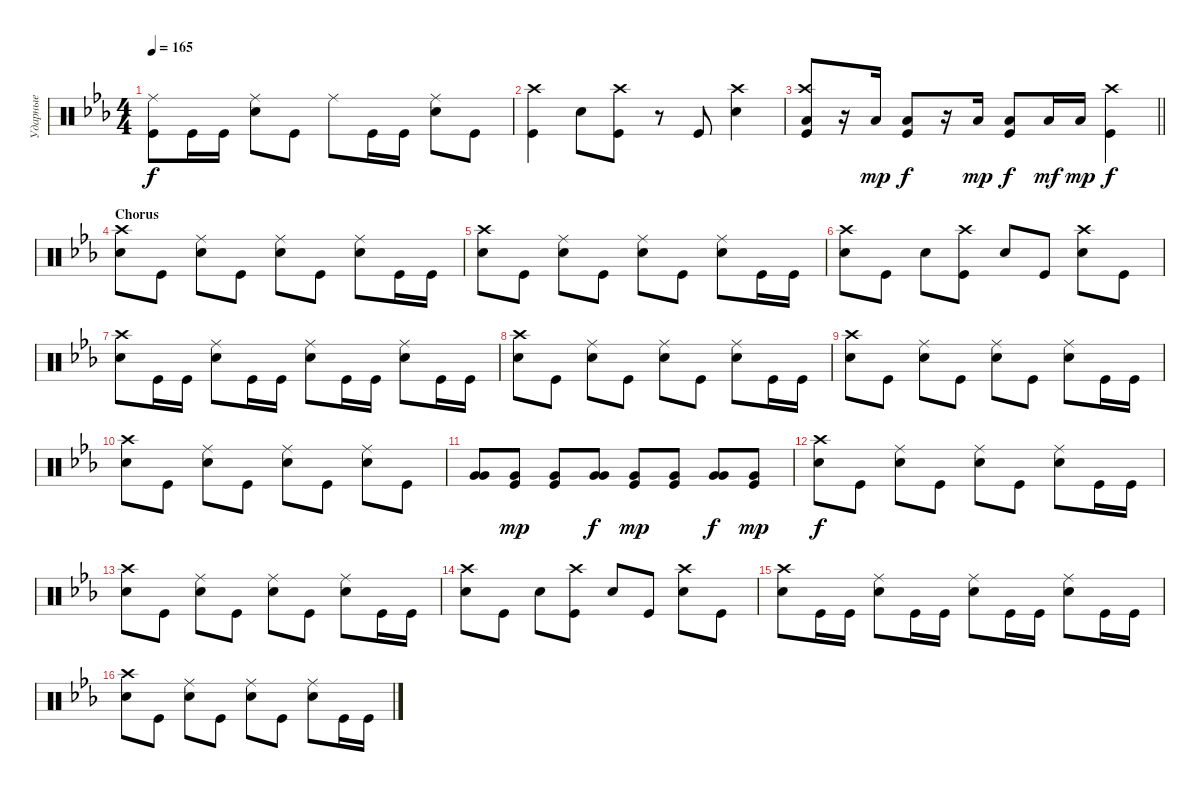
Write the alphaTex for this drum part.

\track ("Ударные" "Ударные") {instrument percussion}
\staff {score}
\articulation defaults
\ts (4 4)
\tempo 165
\clef neutral
\ks cminor
("Kick (hit)" "Ride (middle)").8{dy f} "Kick (hit)".16 "Kick (hit)".16 ("Snare (hit) 2" "Ride (middle)").8 "Kick (hit)".8 "Ride (middle)".8 "Kick (hit)".16 "Kick (hit)".16 ("Snare (hit) 2" "Ride (middle)").8 "Kick (hit)".8 |
("Kick (hit)" "Crash high (hit)").4 "Snare (hit) 2".8 ("Kick (hit)" "Crash high (hit)").8 r.8 "Kick (hit)".8 ("Snare (hit) 2" "Crash high (hit)").4 |
\barLineRight lightlight
("Kick (hit)" "Crash high (hit)" "Low Floor Tom (hit)").8 r.16 "Low Floor Tom (hit)".16{dy mp} ("Kick (hit)" "Low Floor Tom (hit)").8{dy f} r.16 "Low Floor Tom (hit)".16{dy mp} ("Low Floor Tom (hit)" "Kick (hit)").8{dy f} "Low Floor Tom (hit)".16{dy mf} "Low Floor Tom (hit)".16{dy mp} ("Kick (hit)" "Crash high (hit)").4{dy f} |
\section ("" "Chorus")
("Snare (hit) 2" "Crash high (hit)").8 "Kick (hit)".8 ("Snare (hit) 2" "Ride (middle)").8 "Kick (hit)".8 ("Snare (hit) 2" "Ride (middle)").8 "Kick (hit)".8 ("Snare (hit) 2" "Ride (middle)").8 "Kick (hit)".16 "Kick (hit)".16 |
("Snare (hit) 2" "Crash high (hit)").8 "Kick (hit)".8 ("Snare (hit) 2" "Ride (middle)").8 "Kick (hit)".8 ("Snare (hit) 2" "Ride (middle)").8 "Kick (hit)".8 ("Snare (hit) 2" "Ride (middle)").8 "Kick (hit)".16 "Kick (hit)".16 |
("Snare (hit) 2" "Crash high (hit)").8 "Kick (hit)".8 "Snare (hit) 2".8 ("Kick (hit)" "Crash high (hit)").8 "Snare (hit) 2".8 "Kick (hit)".8 ("Snare (hit) 2" "Crash high (hit)").8 "Kick (hit)".8 |
("Snare (hit) 2" "Crash high (hit)").8 "Kick (hit)".16 "Kick (hit)".16 ("Snare (hit) 2" "Ride (middle)").8 "Kick (hit)".16 "Kick (hit)".16 ("Snare (hit) 2" "Ride (middle)").8 "Kick (hit)".16 "Kick (hit)".16 ("Snare (hit) 2" "Ride (middle)").8 "Kick (hit)".16 "Kick (hit)".16 |
("Snare (hit) 2" "Crash high (hit)").8 "Kick (hit)".8 ("Snare (hit) 2" "Ride (middle)").8 "Kick (hit)".8 ("Snare (hit) 2" "Ride (middle)").8 "Kick (hit)".8 ("Snare (hit) 2" "Ride (middle)").8 "Kick (hit)".16 "Kick (hit)".16 |
("Snare (hit) 2" "Crash high (hit)").8 "Kick (hit)".8 ("Snare (hit) 2" "Ride (middle)").8 "Kick (hit)".8 ("Snare (hit) 2" "Ride (middle)").8 "Kick (hit)".8 ("Snare (hit) 2" "Ride (middle)").8 "Kick (hit)".16 "Kick (hit)".16 |
("Snare (hit) 2" "Crash high (hit)").8 "Kick (hit)".8 ("Snare (hit) 2" "Ride (middle)").8 "Kick (hit)".8 ("Snare (hit) 2" "Ride (middle)").8 "Kick (hit)".8 ("Snare (hit) 2" "Ride (middle)").8 "Kick (hit)".8 |
("Very Low Tom (hit)" "Very Low Tom (hit)").8{bd 240} ("Kick (hit)" "Very Low Tom (hit)").8{dy mp} ("Kick (hit)" "Very Low Tom (hit)").8 ("Very Low Tom (hit)" "Very Low Tom (hit)").8{bd 240 dy f} ("Kick (hit)" "Very Low Tom (hit)").8{dy mp} ("Kick (hit)" "Very Low Tom (hit)").8 ("Very Low Tom (hit)" "Very Low Tom (hit)").8{bd 240 dy f} ("Kick (hit)" "Very Low Tom (hit)").8{dy mp} |
("Snare (hit) 2" "Crash high (hit)").8{dy f} "Kick (hit)".8 ("Snare (hit) 2" "Ride (middle)").8 "Kick (hit)".8 ("Snare (hit) 2" "Ride (middle)").8 "Kick (hit)".8 ("Snare (hit) 2" "Ride (middle)").8 "Kick (hit)".16 "Kick (hit)".16 |
("Snare (hit) 2" "Crash high (hit)").8 "Kick (hit)".8 ("Snare (hit) 2" "Ride (middle)").8 "Kick (hit)".8 ("Snare (hit) 2" "Ride (middle)").8 "Kick (hit)".8 ("Snare (hit) 2" "Ride (middle)").8 "Kick (hit)".16 "Kick (hit)".16 |
("Snare (hit) 2" "Crash high (hit)").8 "Kick (hit)".8 "Snare (hit) 2".8 ("Kick (hit)" "Crash high (hit)").8 "Snare (hit) 2".8 "Kick (hit)".8 ("Snare (hit) 2" "Crash high (hit)").8 "Kick (hit)".8 |
("Snare (hit) 2" "Crash high (hit)").8 "Kick (hit)".16 "Kick (hit)".16 ("Snare (hit) 2" "Ride (middle)").8 "Kick (hit)".16 "Kick (hit)".16 ("Snare (hit) 2" "Ride (middle)").8 "Kick (hit)".16 "Kick (hit)".16 ("Snare (hit) 2" "Ride (middle)").8 "Kick (hit)".16 "Kick (hit)".16 |
("Snare (hit) 2" "Crash high (hit)").8 "Kick (hit)".8 ("Snare (hit) 2" "Ride (middle)").8 "Kick (hit)".8 ("Snare (hit) 2" "Ride (middle)").8 "Kick (hit)".8 ("Snare (hit) 2" "Ride (middle)").8 "Kick (hit)".16 "Kick (hit)".16
